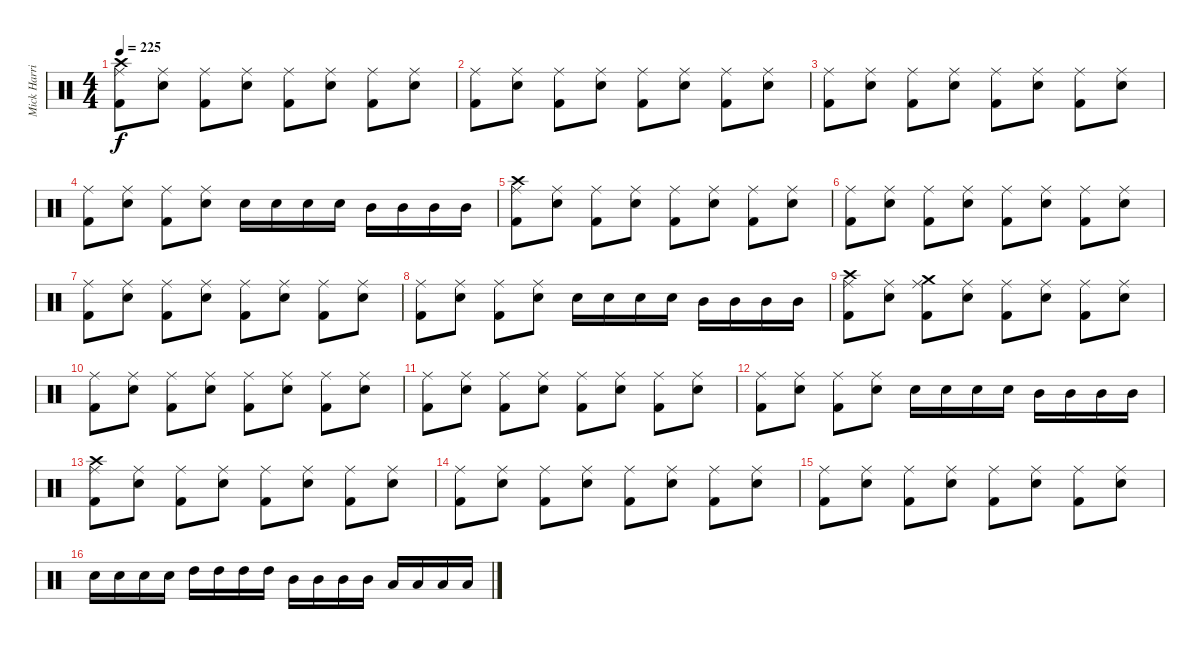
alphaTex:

\track ("Mick Harris (Drums)" "Mick Harri") {instrument percussion}
\staff {score}
\articulation defaults
\ts (4 4)
\tempo 225
\clef neutral
\ks c
("Kick (hit) 2" "Crash high (hit)" "Ride (middle)").8{dy f} ("Electric Snare (hit)" "Ride (middle)").8 ("Kick (hit) 2" "Ride (middle)").8 ("Electric Snare (hit)" "Ride (middle)").8 ("Kick (hit) 2" "Ride (middle)").8 ("Electric Snare (hit)" "Ride (middle)").8 ("Kick (hit) 2" "Ride (middle)").8 ("Electric Snare (hit)" "Ride (middle)").8 |
("Kick (hit) 2" "Ride (middle)").8 ("Electric Snare (hit)" "Ride (middle)").8 ("Kick (hit) 2" "Ride (middle)").8 ("Electric Snare (hit)" "Ride (middle)").8 ("Kick (hit) 2" "Ride (middle)").8 ("Electric Snare (hit)" "Ride (middle)").8 ("Kick (hit) 2" "Ride (middle)").8 ("Electric Snare (hit)" "Ride (middle)").8 |
("Kick (hit) 2" "Ride (middle)").8 ("Electric Snare (hit)" "Ride (middle)").8 ("Kick (hit) 2" "Ride (middle)").8 ("Electric Snare (hit)" "Ride (middle)").8 ("Kick (hit) 2" "Ride (middle)").8 ("Electric Snare (hit)" "Ride (middle)").8 ("Kick (hit) 2" "Ride (middle)").8 ("Electric Snare (hit)" "Ride (middle)").8 |
("Kick (hit) 2" "Ride (middle)").8 ("Electric Snare (hit)" "Ride (middle)").8 ("Kick (hit) 2" "Ride (middle)").8 ("Electric Snare (hit)" "Ride (middle)").8 "Electric Snare (hit)".16 "Electric Snare (hit)".16 "Electric Snare (hit)".16 "Electric Snare (hit)".16 "Mid Tom (hit)".16 "Mid Tom (hit)".16 "Mid Tom (hit)".16 "Mid Tom (hit)".16 |
("Kick (hit) 2" "Crash high (hit)" "Ride (middle)").8 ("Electric Snare (hit)" "Ride (middle)").8 ("Kick (hit) 2" "Ride (middle)").8 ("Electric Snare (hit)" "Ride (middle)").8 ("Kick (hit) 2" "Ride (middle)").8 ("Electric Snare (hit)" "Ride (middle)").8 ("Kick (hit) 2" "Ride (middle)").8 ("Electric Snare (hit)" "Ride (middle)").8 |
("Kick (hit) 2" "Ride (middle)").8 ("Electric Snare (hit)" "Ride (middle)").8 ("Kick (hit) 2" "Ride (middle)").8 ("Electric Snare (hit)" "Ride (middle)").8 ("Kick (hit) 2" "Ride (middle)").8 ("Electric Snare (hit)" "Ride (middle)").8 ("Kick (hit) 2" "Ride (middle)").8 ("Electric Snare (hit)" "Ride (middle)").8 |
("Kick (hit) 2" "Ride (middle)").8 ("Electric Snare (hit)" "Ride (middle)").8 ("Kick (hit) 2" "Ride (middle)").8 ("Electric Snare (hit)" "Ride (middle)").8 ("Kick (hit) 2" "Ride (middle)").8 ("Electric Snare (hit)" "Ride (middle)").8 ("Kick (hit) 2" "Ride (middle)").8 ("Electric Snare (hit)" "Ride (middle)").8 |
("Kick (hit) 2" "Ride (middle)").8 ("Electric Snare (hit)" "Ride (middle)").8 ("Kick (hit) 2" "Ride (middle)").8 ("Electric Snare (hit)" "Ride (middle)").8 "Electric Snare (hit)".16 "Electric Snare (hit)".16 "Electric Snare (hit)".16 "Electric Snare (hit)".16 "Mid Tom (hit)".16 "Mid Tom (hit)".16 "Mid Tom (hit)".16 "Mid Tom (hit)".16 |
("Kick (hit) 2" "Crash high (hit)" "Ride (middle)").8 ("Electric Snare (hit)" "Ride (middle)").8 ("Kick (hit) 2" "Crash medium (hit)" "Ride (middle)").8 ("Electric Snare (hit)" "Ride (middle)").8 ("Kick (hit) 2" "Ride (middle)").8 ("Electric Snare (hit)" "Ride (middle)").8 ("Kick (hit) 2" "Ride (middle)").8 ("Electric Snare (hit)" "Ride (middle)").8 |
("Kick (hit) 2" "Ride (middle)").8 ("Electric Snare (hit)" "Ride (middle)").8 ("Kick (hit) 2" "Ride (middle)").8 ("Electric Snare (hit)" "Ride (middle)").8 ("Kick (hit) 2" "Ride (middle)").8 ("Electric Snare (hit)" "Ride (middle)").8 ("Kick (hit) 2" "Ride (middle)").8 ("Electric Snare (hit)" "Ride (middle)").8 |
("Kick (hit) 2" "Ride (middle)").8 ("Electric Snare (hit)" "Ride (middle)").8 ("Kick (hit) 2" "Ride (middle)").8 ("Electric Snare (hit)" "Ride (middle)").8 ("Kick (hit) 2" "Ride (middle)").8 ("Electric Snare (hit)" "Ride (middle)").8 ("Kick (hit) 2" "Ride (middle)").8 ("Electric Snare (hit)" "Ride (middle)").8 |
("Kick (hit) 2" "Ride (middle)").8 ("Electric Snare (hit)" "Ride (middle)").8 ("Kick (hit) 2" "Ride (middle)").8 ("Electric Snare (hit)" "Ride (middle)").8 "Electric Snare (hit)".16 "Electric Snare (hit)".16 "Electric Snare (hit)".16 "Electric Snare (hit)".16 "Mid Tom (hit)".16 "Mid Tom (hit)".16 "Mid Tom (hit)".16 "Mid Tom (hit)".16 |
("Kick (hit) 2" "Crash high (hit)" "Ride (middle)").8 ("Electric Snare (hit)" "Ride (middle)").8 ("Kick (hit) 2" "Ride (middle)").8 ("Electric Snare (hit)" "Ride (middle)").8 ("Kick (hit) 2" "Ride (middle)").8 ("Electric Snare (hit)" "Ride (middle)").8 ("Kick (hit) 2" "Ride (middle)").8 ("Electric Snare (hit)" "Ride (middle)").8 |
("Kick (hit) 2" "Ride (middle)").8 ("Electric Snare (hit)" "Ride (middle)").8 ("Kick (hit) 2" "Ride (middle)").8 ("Electric Snare (hit)" "Ride (middle)").8 ("Kick (hit) 2" "Ride (middle)").8 ("Electric Snare (hit)" "Ride (middle)").8 ("Kick (hit) 2" "Ride (middle)").8 ("Electric Snare (hit)" "Ride (middle)").8 |
("Kick (hit) 2" "Ride (middle)").8 ("Electric Snare (hit)" "Ride (middle)").8 ("Kick (hit) 2" "Ride (middle)").8 ("Electric Snare (hit)" "Ride (middle)").8 ("Kick (hit) 2" "Ride (middle)").8 ("Electric Snare (hit)" "Ride (middle)").8 ("Kick (hit) 2" "Ride (middle)").8 ("Electric Snare (hit)" "Ride (middle)").8 |
"Electric Snare (hit)".16 "Electric Snare (hit)".16 "Electric Snare (hit)".16 "Electric Snare (hit)".16 "High Tom (hit)".16 "High Tom (hit)".16 "High Tom (hit)".16 "High Tom (hit)".16 "Mid Tom (hit)".16 "Mid Tom (hit)".16 "Mid Tom (hit)".16 "Mid Tom (hit)".16 "Low Tom (hit)".16 "Low Tom (hit)".16 "Low Tom (hit)".16 "Low Tom (hit)".16
